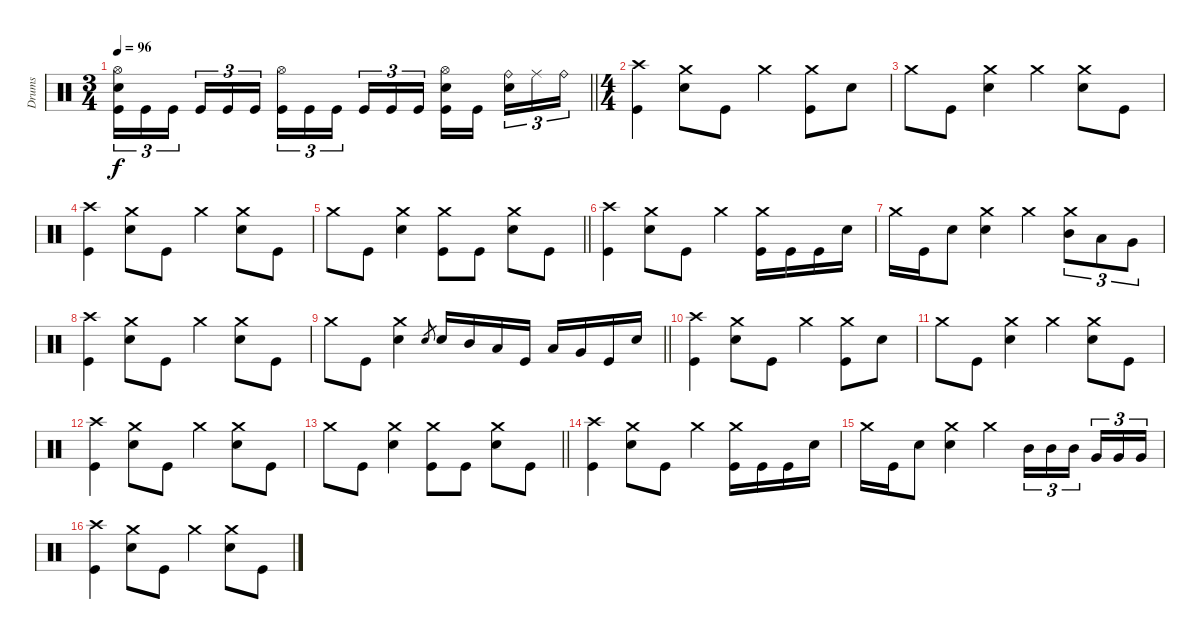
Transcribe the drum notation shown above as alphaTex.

\track ("Drums" "Drums") {instrument percussion}
\staff
\articulation defaults
\ts (3 4)
\tempo 96
\clef neutral
\barLineRight lightlight
\ks c
("Hi-Hat (open)" "Electric Snare (hit)" "Kick (hit)").16{tu (3 2) dy f} "Kick (hit)".16{tu (3 2)} "Kick (hit)".16{tu (3 2) beam splitsecondary} "Kick (hit)".16{tu (3 2)} "Kick (hit)".16{tu (3 2)} "Kick (hit)".16{tu (3 2)} ("Hi-Hat (open)" "Kick (hit)").16{tu (3 2)} "Kick (hit)".16{tu (3 2)} "Kick (hit)".16{tu (3 2) beam splitsecondary} "Kick (hit)".16{tu (3 2)} "Kick (hit)".16{tu (3 2)} "Kick (hit)".16{tu (3 2)} ("Hi-Hat (open)" "Electric Snare (hit)" "Kick (hit)").16 "Kick (hit)".16{beam splitsecondary} ("Ride (bell)" "Electric Snare (hit)").16{tu (3 2)} "Ride (middle)".16{tu (3 2)} "Ride (bell)".16{tu (3 2)} |
\ts (4 4)
\section ("" "")
("Crash high (hit)" "Kick (hit)").4 ("Crash medium (hit)" "Electric Snare (hit)").8 "Kick (hit)".8 "Crash medium (hit)".4 ("Crash medium (hit)" "Kick (hit)").8 "Electric Snare (hit)".8 |
"Crash medium (hit)".8 "Kick (hit)".8 ("Crash medium (hit)" "Electric Snare (hit)").4 "Crash medium (hit)".4 ("Crash medium (hit)" "Electric Snare (hit)").8 "Kick (hit)".8 |
("Crash high (hit)" "Kick (hit)").4 ("Crash medium (hit)" "Electric Snare (hit)").8 "Kick (hit)".8 "Crash medium (hit)".4 ("Crash medium (hit)" "Electric Snare (hit)").8 "Kick (hit)".8 |
\barLineRight lightlight "Crash medium (hit)".8 "Kick (hit)".8
("Crash medium (hit)" "Electric Snare (hit)").4 ("Crash medium (hit)" "Kick (hit)").8 "Kick (hit)".8 ("Crash medium (hit)" "Electric Snare (hit)").8 "Kick (hit)".8 |
("Crash high (hit)" "Kick (hit)").4 ("Crash medium (hit)" "Electric Snare (hit)").8 "Kick (hit)".8 "Crash medium (hit)".4 ("Crash medium (hit)" "Kick (hit)").16 "Kick (hit)".16 "Kick (hit)".16 "Electric Snare (hit)".16 |
"Crash medium (hit)".16 "Kick (hit)".16 "Electric Snare (hit)".8 ("Crash medium (hit)" "Electric Snare (hit)").4 "Crash medium (hit)".4 ("Crash medium (hit)" "Mid Tom (hit)").8{tu (3 2)} "Low Tom (hit)".8{tu (3 2)} "Very Low Tom (hit)".8{tu (3 2)} |
("Crash high (hit)" "Kick (hit)").4 ("Crash medium (hit)" "Electric Snare (hit)").8 "Kick (hit)".8 "Crash medium (hit)".4 ("Crash medium (hit)" "Electric Snare (hit)").8 "Kick (hit)".8 |
\barLineRight lightlight "Crash medium (hit)".8 "Kick (hit)".8
("Crash medium (hit)" "Electric Snare (hit)").4 "Electric Snare (hit)".8{gr} "Electric Snare (hit)".16 "Mid Tom (hit)".16 "Low Tom (hit)".16 "Kick (hit)".16 "Low Tom (hit)".16 "Very Low Tom (hit)".16 "Kick (hit)".16 "Electric Snare (hit)".16 |
("Crash high (hit)" "Kick (hit)").4 ("Crash medium (hit)" "Electric Snare (hit)").8 "Kick (hit)".8 "Crash medium (hit)".4 ("Crash medium (hit)" "Kick (hit)").8 "Electric Snare (hit)".8 |
"Crash medium (hit)".8 "Kick (hit)".8 ("Crash medium (hit)" "Electric Snare (hit)").4 "Crash medium (hit)".4 ("Crash medium (hit)" "Electric Snare (hit)").8 "Kick (hit)".8 |
("Crash high (hit)" "Kick (hit)").4 ("Crash medium (hit)" "Electric Snare (hit)").8 "Kick (hit)".8 "Crash medium (hit)".4 ("Crash medium (hit)" "Electric Snare (hit)").8 "Kick (hit)".8 |
\barLineRight lightlight "Crash medium (hit)".8 "Kick (hit)".8
("Crash medium (hit)" "Electric Snare (hit)").4 ("Crash medium (hit)" "Kick (hit)").8 "Kick (hit)".8 ("Crash medium (hit)" "Electric Snare (hit)").8 "Kick (hit)".8 |
("Crash high (hit)" "Kick (hit)").4 ("Crash medium (hit)" "Electric Snare (hit)").8 "Kick (hit)".8 "Crash medium (hit)".4 ("Crash medium (hit)" "Kick (hit)").16 "Kick (hit)".16 "Kick (hit)".16 "Electric Snare (hit)".16 |
"Crash medium (hit)".16 "Kick (hit)".16 "Electric Snare (hit)".8 ("Crash medium (hit)" "Electric Snare (hit)").4 "Crash medium (hit)".4 "Mid Tom (hit)".16{tu (3 2)} "Mid Tom (hit)".16{tu (3 2)} "Mid Tom (hit)".16{tu (3 2) beam splitsecondary} "Very Low Tom (hit)".16{tu (3 2)} "Very Low Tom (hit)".16{tu (3 2)} "Very Low Tom (hit)".16{tu (3 2)} |
("Crash high (hit)" "Kick (hit)").4 ("Crash medium (hit)" "Electric Snare (hit)").8 "Kick (hit)".8 "Crash medium (hit)".4 ("Crash medium (hit)" "Electric Snare (hit)").8 "Kick (hit)".8
